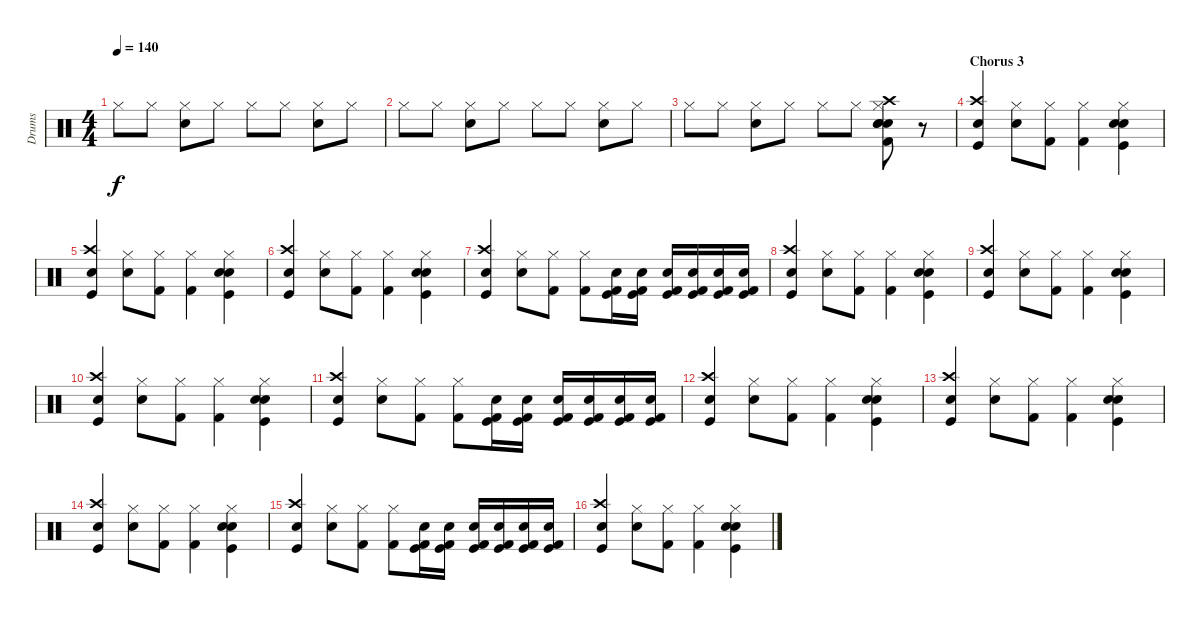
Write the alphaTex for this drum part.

\track ("Drums" "Drums") {instrument percussion}
\staff {score}
\articulation defaults
\ts (4 4)
\tempo 140
\clef neutral
\ks c "Hi-Hat (closed)".8{dy f} "Hi-Hat (closed)".8
("Snare (hit) 2" "Hi-Hat (closed)").8 "Hi-Hat (closed)".8 "Hi-Hat (closed)".8 "Hi-Hat (closed)".8 ("Snare (hit) 2" "Hi-Hat (closed)").8 "Hi-Hat (closed)".8 |
"Hi-Hat (closed)".8 "Hi-Hat (closed)".8 ("Snare (hit) 2" "Hi-Hat (closed)").8 "Hi-Hat (closed)".8 "Hi-Hat (closed)".8 "Hi-Hat (closed)".8 ("Snare (hit) 2" "Hi-Hat (closed)").8 "Hi-Hat (closed)".8 |
"Hi-Hat (closed)".8 "Hi-Hat (closed)".8 ("Snare (hit) 2" "Hi-Hat (closed)").8 "Hi-Hat (closed)".8 "Hi-Hat (closed)".8 "Hi-Hat (closed)".8 ("Snare (hit) 2" "Electric Snare (hit)" "Snare (hit) 2" "Hi-Hat (closed)" "Crash high (hit)" "Kick (hit) 2").8 r.8 |
\section ("" "Chorus 3")
("Crash high (hit)" "Snare (hit) 2" "Kick (hit)").4 ("Hi-Hat (closed)" "Snare (hit) 2").8 ("Hi-Hat (closed)" "Kick (hit) 2").8 ("Hi-Hat (closed)" "Kick (hit) 2").4 ("Electric Snare (hit)" "Hi-Hat (closed)" "Snare (hit) 2" "Kick (hit)").4 |
("Crash high (hit)" "Snare (hit) 2" "Kick (hit)").4 ("Hi-Hat (closed)" "Snare (hit) 2").8 ("Hi-Hat (closed)" "Kick (hit) 2").8 ("Hi-Hat (closed)" "Kick (hit) 2").4 ("Electric Snare (hit)" "Hi-Hat (closed)" "Snare (hit) 2" "Kick (hit)").4 |
("Crash high (hit)" "Snare (hit) 2" "Kick (hit)").4 ("Hi-Hat (closed)" "Snare (hit) 2").8 ("Hi-Hat (closed)" "Kick (hit) 2").8 ("Hi-Hat (closed)" "Kick (hit) 2").4 ("Electric Snare (hit)" "Hi-Hat (closed)" "Snare (hit) 2" "Kick (hit)").4 |
("Crash high (hit)" "Snare (hit) 2" "Kick (hit)").4 ("Hi-Hat (closed)" "Snare (hit) 2").8 ("Hi-Hat (closed)" "Kick (hit) 2").8 ("Hi-Hat (closed)" "Kick (hit) 2").8 ("Electric Snare (hit)" "Kick (hit) 2" "Kick (hit)").16 ("Electric Snare (hit)" "Kick (hit) 2" "Kick (hit)").16 ("Electric Snare (hit)" "Kick (hit) 2" "Kick (hit)").16 ("Electric Snare (hit)" "Kick (hit) 2" "Kick (hit)").16 ("Electric Snare (hit)" "Kick (hit) 2" "Kick (hit)").16 ("Electric Snare (hit)" "Kick (hit) 2" "Kick (hit)").16 |
("Crash high (hit)" "Snare (hit) 2" "Kick (hit)").4 ("Hi-Hat (closed)" "Snare (hit) 2").8 ("Hi-Hat (closed)" "Kick (hit) 2").8 ("Hi-Hat (closed)" "Kick (hit) 2").4 ("Electric Snare (hit)" "Hi-Hat (closed)" "Snare (hit) 2" "Kick (hit)").4 |
("Crash high (hit)" "Snare (hit) 2" "Kick (hit)").4 ("Hi-Hat (closed)" "Snare (hit) 2").8 ("Hi-Hat (closed)" "Kick (hit) 2").8 ("Hi-Hat (closed)" "Kick (hit) 2").4 ("Electric Snare (hit)" "Hi-Hat (closed)" "Snare (hit) 2" "Kick (hit)").4 |
("Crash high (hit)" "Snare (hit) 2" "Kick (hit)").4 ("Hi-Hat (closed)" "Snare (hit) 2").8 ("Hi-Hat (closed)" "Kick (hit) 2").8 ("Hi-Hat (closed)" "Kick (hit) 2").4 ("Electric Snare (hit)" "Hi-Hat (closed)" "Snare (hit) 2" "Kick (hit)").4 |
("Crash high (hit)" "Snare (hit) 2" "Kick (hit)").4 ("Hi-Hat (closed)" "Snare (hit) 2").8 ("Hi-Hat (closed)" "Kick (hit) 2").8 ("Hi-Hat (closed)" "Kick (hit) 2").8 ("Electric Snare (hit)" "Kick (hit) 2" "Kick (hit)").16 ("Electric Snare (hit)" "Kick (hit) 2" "Kick (hit)").16 ("Electric Snare (hit)" "Kick (hit) 2" "Kick (hit)").16 ("Electric Snare (hit)" "Kick (hit) 2" "Kick (hit)").16 ("Electric Snare (hit)" "Kick (hit) 2" "Kick (hit)").16 ("Electric Snare (hit)" "Kick (hit) 2" "Kick (hit)").16 |
("Crash high (hit)" "Snare (hit) 2" "Kick (hit)").4 ("Hi-Hat (closed)" "Snare (hit) 2").8 ("Hi-Hat (closed)" "Kick (hit) 2").8 ("Hi-Hat (closed)" "Kick (hit) 2").4 ("Electric Snare (hit)" "Hi-Hat (closed)" "Snare (hit) 2" "Kick (hit)").4 |
("Crash high (hit)" "Snare (hit) 2" "Kick (hit)").4 ("Hi-Hat (closed)" "Snare (hit) 2").8 ("Hi-Hat (closed)" "Kick (hit) 2").8 ("Hi-Hat (closed)" "Kick (hit) 2").4 ("Electric Snare (hit)" "Hi-Hat (closed)" "Snare (hit) 2" "Kick (hit)").4 |
("Crash high (hit)" "Snare (hit) 2" "Kick (hit)").4 ("Hi-Hat (closed)" "Snare (hit) 2").8 ("Hi-Hat (closed)" "Kick (hit) 2").8 ("Hi-Hat (closed)" "Kick (hit) 2").4 ("Electric Snare (hit)" "Hi-Hat (closed)" "Snare (hit) 2" "Kick (hit)").4 |
("Crash high (hit)" "Snare (hit) 2" "Kick (hit)").4 ("Hi-Hat (closed)" "Snare (hit) 2").8 ("Hi-Hat (closed)" "Kick (hit) 2").8 ("Hi-Hat (closed)" "Kick (hit) 2").8 ("Electric Snare (hit)" "Kick (hit) 2" "Kick (hit)").16 ("Electric Snare (hit)" "Kick (hit) 2" "Kick (hit)").16 ("Electric Snare (hit)" "Kick (hit) 2" "Kick (hit)").16 ("Electric Snare (hit)" "Kick (hit) 2" "Kick (hit)").16 ("Electric Snare (hit)" "Kick (hit) 2" "Kick (hit)").16 ("Electric Snare (hit)" "Kick (hit) 2" "Kick (hit)").16 |
("Crash high (hit)" "Snare (hit) 2" "Kick (hit)").4 ("Hi-Hat (closed)" "Snare (hit) 2").8 ("Hi-Hat (closed)" "Kick (hit) 2").8 ("Hi-Hat (closed)" "Kick (hit) 2").4 ("Electric Snare (hit)" "Hi-Hat (closed)" "Snare (hit) 2" "Kick (hit)").4
